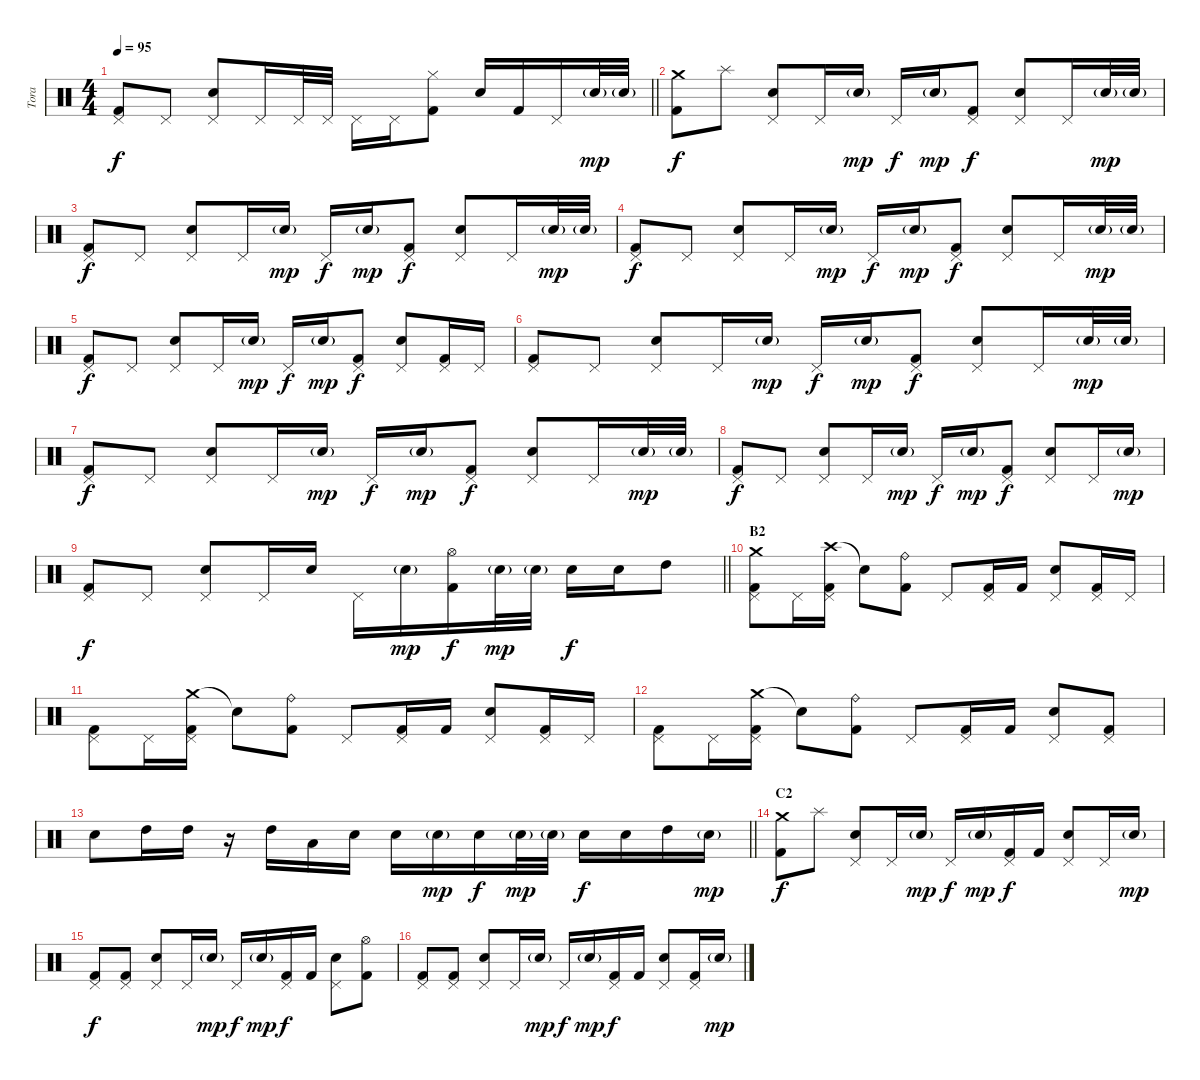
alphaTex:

\track ("Tora" "Tora") {instrument percussion}
\staff {score}
\articulation defaults
\ts (4 4)
\tempo 95
\clef neutral
\barLineRight lightlight
\ks c
("Pedal Hi-Hat (hit)" "Kick (hit) 2").8{dy f} "Pedal Hi-Hat (hit)".8 ("Pedal Hi-Hat (hit)" "Electric Snare (hit)").8 "Pedal Hi-Hat (hit)".16 "Pedal Hi-Hat (hit)".32 "Pedal Hi-Hat (hit)".32 "Pedal Hi-Hat (hit)".16 "Pedal Hi-Hat (hit)".16 ("Hi-Hat (closed)" "Kick (hit) 2").8 "Electric Snare (hit)".16 "Kick (hit) 2".16 "Pedal Hi-Hat (hit)".16 "Electric Snare (hit)"{g}.32{dy mp} "Electric Snare (hit)"{g}.32 |
("Crash medium (hit)" "Kick (hit) 2").8{dy f} "Splash (hit)".8 ("Pedal Hi-Hat (hit)" "Electric Snare (hit)").8 "Pedal Hi-Hat (hit)".16 "Electric Snare (hit)"{g}.16{dy mp} "Pedal Hi-Hat (hit)".16{dy f} "Electric Snare (hit)"{g}.16{dy mp} ("Pedal Hi-Hat (hit)" "Kick (hit) 2").8{dy f} ("Pedal Hi-Hat (hit)" "Electric Snare (hit)").8 "Pedal Hi-Hat (hit)".16 "Electric Snare (hit)"{g}.32{dy mp} "Electric Snare (hit)"{g}.32 |
("Pedal Hi-Hat (hit)" "Kick (hit) 2").8{dy f} "Pedal Hi-Hat (hit)".8 ("Pedal Hi-Hat (hit)" "Electric Snare (hit)").8 "Pedal Hi-Hat (hit)".16 "Electric Snare (hit)"{g}.16{dy mp} "Pedal Hi-Hat (hit)".16{dy f} "Electric Snare (hit)"{g}.16{dy mp} ("Pedal Hi-Hat (hit)" "Kick (hit) 2").8{dy f} ("Pedal Hi-Hat (hit)" "Electric Snare (hit)").8 "Pedal Hi-Hat (hit)".16 "Electric Snare (hit)"{g}.32{dy mp} "Electric Snare (hit)"{g}.32 |
("Pedal Hi-Hat (hit)" "Kick (hit) 2").8{dy f} "Pedal Hi-Hat (hit)".8 ("Pedal Hi-Hat (hit)" "Electric Snare (hit)").8 "Pedal Hi-Hat (hit)".16 "Electric Snare (hit)"{g}.16{dy mp} "Pedal Hi-Hat (hit)".16{dy f} "Electric Snare (hit)"{g}.16{dy mp} ("Pedal Hi-Hat (hit)" "Kick (hit) 2").8{dy f} ("Pedal Hi-Hat (hit)" "Electric Snare (hit)").8 "Pedal Hi-Hat (hit)".16 "Electric Snare (hit)"{g}.32{dy mp} "Electric Snare (hit)"{g}.32 |
("Pedal Hi-Hat (hit)" "Kick (hit) 2").8{dy f} "Pedal Hi-Hat (hit)".8 ("Pedal Hi-Hat (hit)" "Electric Snare (hit)").8 "Pedal Hi-Hat (hit)".16 "Electric Snare (hit)"{g}.16{dy mp} "Pedal Hi-Hat (hit)".16{dy f} "Electric Snare (hit)"{g}.16{dy mp} ("Pedal Hi-Hat (hit)" "Kick (hit) 2").8{dy f} ("Pedal Hi-Hat (hit)" "Electric Snare (hit)").8 ("Pedal Hi-Hat (hit)" "Kick (hit) 2").16 "Pedal Hi-Hat (hit)".16 |
("Pedal Hi-Hat (hit)" "Kick (hit) 2").8 "Pedal Hi-Hat (hit)".8 ("Pedal Hi-Hat (hit)" "Electric Snare (hit)").8 "Pedal Hi-Hat (hit)".16 "Electric Snare (hit)"{g}.16{dy mp} "Pedal Hi-Hat (hit)".16{dy f} "Electric Snare (hit)"{g}.16{dy mp} ("Pedal Hi-Hat (hit)" "Kick (hit) 2").8{dy f} ("Pedal Hi-Hat (hit)" "Electric Snare (hit)").8 "Pedal Hi-Hat (hit)".16 "Electric Snare (hit)"{g}.32{dy mp} "Electric Snare (hit)"{g}.32 |
("Pedal Hi-Hat (hit)" "Kick (hit) 2").8{dy f} "Pedal Hi-Hat (hit)".8 ("Pedal Hi-Hat (hit)" "Electric Snare (hit)").8 "Pedal Hi-Hat (hit)".16 "Electric Snare (hit)"{g}.16{dy mp} "Pedal Hi-Hat (hit)".16{dy f} "Electric Snare (hit)"{g}.16{dy mp} ("Pedal Hi-Hat (hit)" "Kick (hit) 2").8{dy f} ("Pedal Hi-Hat (hit)" "Electric Snare (hit)").8 "Pedal Hi-Hat (hit)".16 "Electric Snare (hit)"{g}.32{dy mp} "Electric Snare (hit)"{g}.32 |
("Pedal Hi-Hat (hit)" "Kick (hit) 2").8{dy f} "Pedal Hi-Hat (hit)".8 ("Pedal Hi-Hat (hit)" "Electric Snare (hit)").8 "Pedal Hi-Hat (hit)".16 "Electric Snare (hit)"{g}.16{dy mp} "Pedal Hi-Hat (hit)".16{dy f} "Electric Snare (hit)"{g}.16{dy mp} ("Pedal Hi-Hat (hit)" "Kick (hit) 2").8{dy f} ("Pedal Hi-Hat (hit)" "Electric Snare (hit)").8 "Pedal Hi-Hat (hit)".16 "Electric Snare (hit)"{g}.16{dy mp} |
\barLineRight lightlight
("Pedal Hi-Hat (hit)" "Kick (hit) 2").8{dy f} "Pedal Hi-Hat (hit)".8 ("Pedal Hi-Hat (hit)" "Electric Snare (hit)").8 "Pedal Hi-Hat (hit)".16 "Electric Snare (hit)".16 "Pedal Hi-Hat (hit)".16 "Electric Snare (hit)"{g}.16{dy mp} ("Hi-Hat (open)" "Kick (hit) 2").16{dy f} "Electric Snare (hit)"{g}.32{dy mp} "Electric Snare (hit)"{g}.32 "Electric Snare (hit)".16{dy f} "Electric Snare (hit)".16 "High Tom (hit)".8 |
\section ("" "B2")
("Crash medium (hit)" "Pedal Hi-Hat (hit)" "Kick (hit) 2").8 "Pedal Hi-Hat (hit)".16 ("Crash high (hit)" "Pedal Hi-Hat (hit)" "Kick (hit) 2").16 "Snare (hit)"{t}.8 ("Ride (bell)" "Kick (hit) 2").8 "Pedal Hi-Hat (hit)".8 ("Pedal Hi-Hat (hit)" "Kick (hit) 2").16 "Kick (hit) 2".16 ("Pedal Hi-Hat (hit)" "Electric Snare (hit)").8 ("Pedal Hi-Hat (hit)" "Kick (hit) 2").16 "Pedal Hi-Hat (hit)".16 |
("Pedal Hi-Hat (hit)" "Kick (hit) 2").8 "Pedal Hi-Hat (hit)".16 ("Crash medium (hit)" "Pedal Hi-Hat (hit)" "Kick (hit) 2").16 "Snare (hit)"{t}.8 ("Ride (bell)" "Kick (hit) 2").8 "Pedal Hi-Hat (hit)".8 ("Pedal Hi-Hat (hit)" "Kick (hit) 2").16 "Kick (hit) 2".16 ("Pedal Hi-Hat (hit)" "Electric Snare (hit)").8 ("Pedal Hi-Hat (hit)" "Kick (hit) 2").16 "Pedal Hi-Hat (hit)".16 |
("Pedal Hi-Hat (hit)" "Kick (hit) 2").8 "Pedal Hi-Hat (hit)".16 ("Crash medium (hit)" "Pedal Hi-Hat (hit)" "Kick (hit) 2").16 "Snare (hit)"{t}.8 ("Ride (bell)" "Kick (hit) 2").8 "Pedal Hi-Hat (hit)".8 ("Pedal Hi-Hat (hit)" "Kick (hit) 2").16 "Kick (hit) 2".16 ("Pedal Hi-Hat (hit)" "Electric Snare (hit)").8 ("Pedal Hi-Hat (hit)" "Kick (hit) 2").8 |
\barLineRight lightlight "Electric Snare (hit)".8 "High Tom (hit)".16 "High Tom (hit)".16
r.16 "High Tom (hit)".16 "Low Tom (hit)".16 "Electric Snare (hit)".16 "Electric Snare (hit)".16 "Electric Snare (hit)"{g}.16{dy mp} "Electric Snare (hit)".16{dy f} "Electric Snare (hit)"{g}.32{dy mp} "Electric Snare (hit)"{g}.32 "Electric Snare (hit)".16{dy f} "Electric Snare (hit)".16 "High Tom (hit)".16 "Electric Snare (hit)"{g}.16{dy mp} |
\section ("" "C2")
("Crash medium (hit)" "Kick (hit) 2").8{dy f} "Splash (hit)".8 ("Pedal Hi-Hat (hit)" "Electric Snare (hit)").8 "Pedal Hi-Hat (hit)".16 "Electric Snare (hit)"{g}.16{dy mp} "Pedal Hi-Hat (hit)".16{dy f} "Electric Snare (hit)"{g}.16{dy mp} ("Pedal Hi-Hat (hit)" "Kick (hit) 2").16{dy f} "Kick (hit) 2".16 ("Pedal Hi-Hat (hit)" "Electric Snare (hit)").8 "Pedal Hi-Hat (hit)".16 "Electric Snare (hit)"{g}.16{dy mp} |
("Pedal Hi-Hat (hit)" "Kick (hit) 2").8{dy f} ("Pedal Hi-Hat (hit)" "Kick (hit) 2").8 ("Pedal Hi-Hat (hit)" "Electric Snare (hit)").8 "Pedal Hi-Hat (hit)".16 "Electric Snare (hit)"{g}.16{dy mp} "Pedal Hi-Hat (hit)".16{dy f} "Electric Snare (hit)"{g}.16{dy mp} ("Pedal Hi-Hat (hit)" "Kick (hit) 2").16{dy f} "Kick (hit) 2".16 ("Pedal Hi-Hat (hit)" "Electric Snare (hit)").8 ("Hi-Hat (open)" "Kick (hit) 2").8 |
("Pedal Hi-Hat (hit)" "Kick (hit) 2").8 ("Pedal Hi-Hat (hit)" "Kick (hit) 2").8 ("Pedal Hi-Hat (hit)" "Electric Snare (hit)").8 "Pedal Hi-Hat (hit)".16 "Electric Snare (hit)"{g}.16{dy mp} "Pedal Hi-Hat (hit)".16{dy f} "Electric Snare (hit)"{g}.16{dy mp} ("Pedal Hi-Hat (hit)" "Kick (hit) 2").16{dy f} "Kick (hit) 2".16 ("Pedal Hi-Hat (hit)" "Electric Snare (hit)").8 ("Pedal Hi-Hat (hit)" "Kick (hit) 2").16 "Electric Snare (hit)"{g}.16{dy mp}
